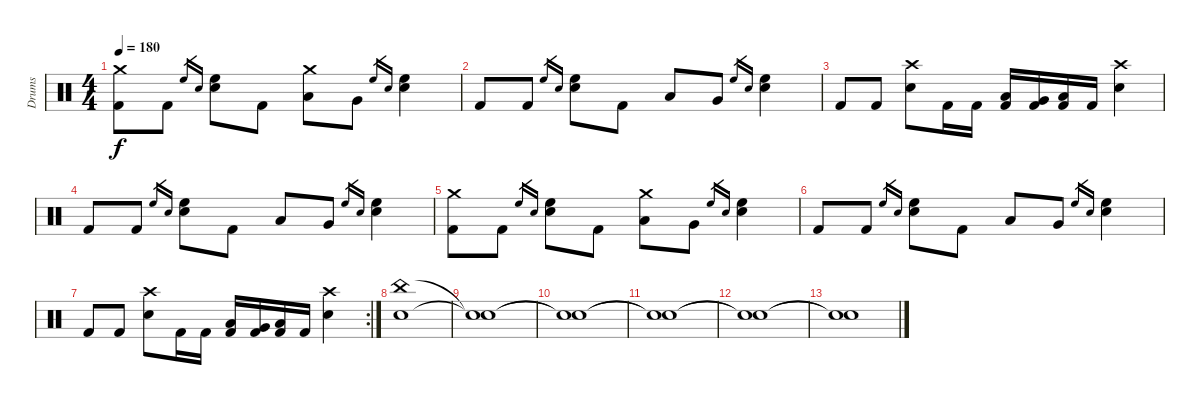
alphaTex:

\track ("Drums" "Drums") {instrument percussion}
\staff {score}
\articulation defaults
\ts (4 4)
\tempo 180
\clef neutral
\ks c
("Crash medium (hit)" "Kick (hit) 2").8{dy f} "Kick (hit) 2".8 "High Floor Tom (hit)".16{gr} "Electric Snare (hit)".16{gr} ("High Floor Tom (hit)" "Electric Snare (hit)").8 "Kick (hit) 2".8 ("Crash medium (hit)" "Low Tom (hit)").8 "Very Low Tom (hit)".8 "High Floor Tom (hit)".16{gr} "Electric Snare (hit)".16{gr} ("High Floor Tom (hit)" "Electric Snare (hit)").4 |
"Kick (hit) 2".8 "Kick (hit) 2".8 "High Floor Tom (hit)".16{gr} "Electric Snare (hit)".16{gr} ("High Floor Tom (hit)" "Electric Snare (hit)").8 "Kick (hit) 2".8 "Low Tom (hit)".8 "Very Low Tom (hit)".8 "High Floor Tom (hit)".16{gr} "Electric Snare (hit)".16{gr} ("High Floor Tom (hit)" "Electric Snare (hit)").4 |
"Kick (hit) 2".8 "Kick (hit) 2".8 ("Crash high (hit)" "Electric Snare (hit)").8 "Kick (hit) 2".16 "Kick (hit) 2".16 ("Low Tom (hit)" "Kick (hit) 2").16 ("Very Low Tom (hit)" "Kick (hit) 2").16 ("Low Floor Tom (hit)" "Kick (hit) 2").16 "Kick (hit) 2".16 ("Crash high (hit)" "Electric Snare (hit)").4 |
"Kick (hit) 2".8 "Kick (hit) 2".8 "High Floor Tom (hit)".16{gr} "Electric Snare (hit)".16{gr} ("High Floor Tom (hit)" "Electric Snare (hit)").8 "Kick (hit) 2".8 "Low Tom (hit)".8 "Very Low Tom (hit)".8 "High Floor Tom (hit)".16{gr} "Electric Snare (hit)".16{gr} ("High Floor Tom (hit)" "Electric Snare (hit)").4 |
("Crash medium (hit)" "Kick (hit) 2").8 "Kick (hit) 2".8 "High Floor Tom (hit)".16{gr} "Electric Snare (hit)".16{gr} ("High Floor Tom (hit)" "Electric Snare (hit)").8 "Kick (hit) 2".8 ("Crash medium (hit)" "Low Tom (hit)").8 "Very Low Tom (hit)".8 "High Floor Tom (hit)".16{gr} "Electric Snare (hit)".16{gr} ("High Floor Tom (hit)" "Electric Snare (hit)").4 |
"Kick (hit) 2".8 "Kick (hit) 2".8 "High Floor Tom (hit)".16{gr} "Electric Snare (hit)".16{gr} ("High Floor Tom (hit)" "Electric Snare (hit)").8 "Kick (hit) 2".8 "Low Tom (hit)".8 "Very Low Tom (hit)".8 "High Floor Tom (hit)".16{gr} "Electric Snare (hit)".16{gr} ("High Floor Tom (hit)" "Electric Snare (hit)").4 |
\rc 2 "Kick (hit) 2".8 "Kick (hit) 2".8
("Crash high (hit)" "Electric Snare (hit)").8 "Kick (hit) 2".16 "Kick (hit) 2".16 ("Low Tom (hit)" "Kick (hit) 2").16 ("Very Low Tom (hit)" "Kick (hit) 2").16 ("Low Floor Tom (hit)" "Kick (hit) 2").16 "Kick (hit) 2".16 ("Crash high (hit)" "Electric Snare (hit)").4 |
("China (hit)" "Snare (hit) 2").1{volume 0} |
("Snare (hit)"{t} "Snare (hit)"{t}).1 |
("Snare (hit)"{t} "Snare (hit)"{t}).1 |
("Snare (hit)"{t} "Snare (hit)"{t}).1 |
("Snare (hit)"{t} "Snare (hit)"{t}).1 |
("Snare (hit)"{t} "Snare (hit)"{t}).1
